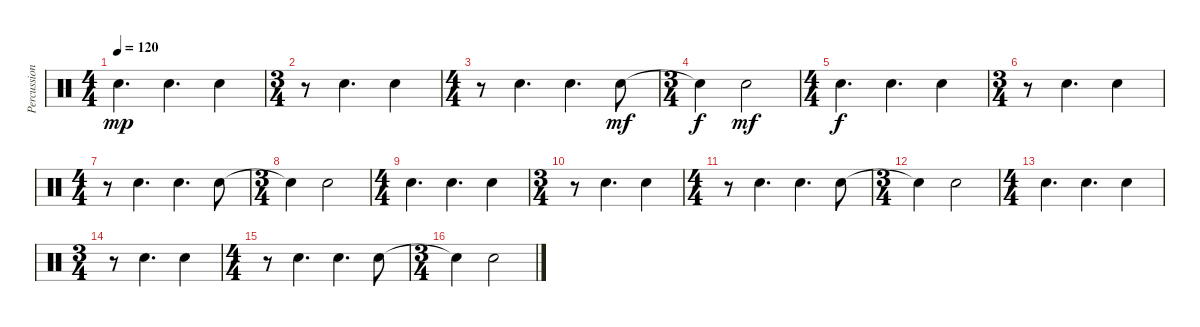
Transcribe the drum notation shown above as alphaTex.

\track ("Percussion" "Percussion") {instrument percussion}
\staff {score}
\articulation defaults
\ts (4 4)
\tempo 120
\clef neutral
\ks c "Electric Snare (hit)".4{d dy mp} "Electric Snare (hit)".4{d} "Electric Snare (hit)".4
|
\ts (3 4)
r.8 "Electric Snare (hit)".4{d} "Electric Snare (hit)".4 |
\ts (4 4)
r.8 "Electric Snare (hit)".4{d} "Electric Snare (hit)".4{d} "Electric Snare (hit)".8{dy mf} |
\ts (3 4)
"Snare (hit)"{t}.4{dy f} "Electric Snare (hit)".2{dy mf} |
\ts (4 4)
"Electric Snare (hit)".4{d dy f} "Electric Snare (hit)".4{d} "Electric Snare (hit)".4 |
\ts (3 4)
r.8 "Electric Snare (hit)".4{d} "Electric Snare (hit)".4 |
\ts (4 4)
r.8 "Electric Snare (hit)".4{d} "Electric Snare (hit)".4{d} "Electric Snare (hit)".8 |
\ts (3 4)
"Snare (hit)"{t}.4 "Electric Snare (hit)".2 |
\ts (4 4)
"Electric Snare (hit)".4{d} "Electric Snare (hit)".4{d} "Electric Snare (hit)".4 |
\ts (3 4)
r.8 "Electric Snare (hit)".4{d} "Electric Snare (hit)".4 |
\ts (4 4)
r.8 "Electric Snare (hit)".4{d} "Electric Snare (hit)".4{d} "Electric Snare (hit)".8 |
\ts (3 4)
"Snare (hit)"{t}.4 "Electric Snare (hit)".2 |
\ts (4 4)
"Electric Snare (hit)".4{d} "Electric Snare (hit)".4{d} "Electric Snare (hit)".4 |
\ts (3 4)
r.8 "Electric Snare (hit)".4{d} "Electric Snare (hit)".4 |
\ts (4 4)
r.8 "Electric Snare (hit)".4{d} "Electric Snare (hit)".4{d} "Electric Snare (hit)".8 |
\ts (3 4)
"Snare (hit)"{t}.4 "Electric Snare (hit)".2
